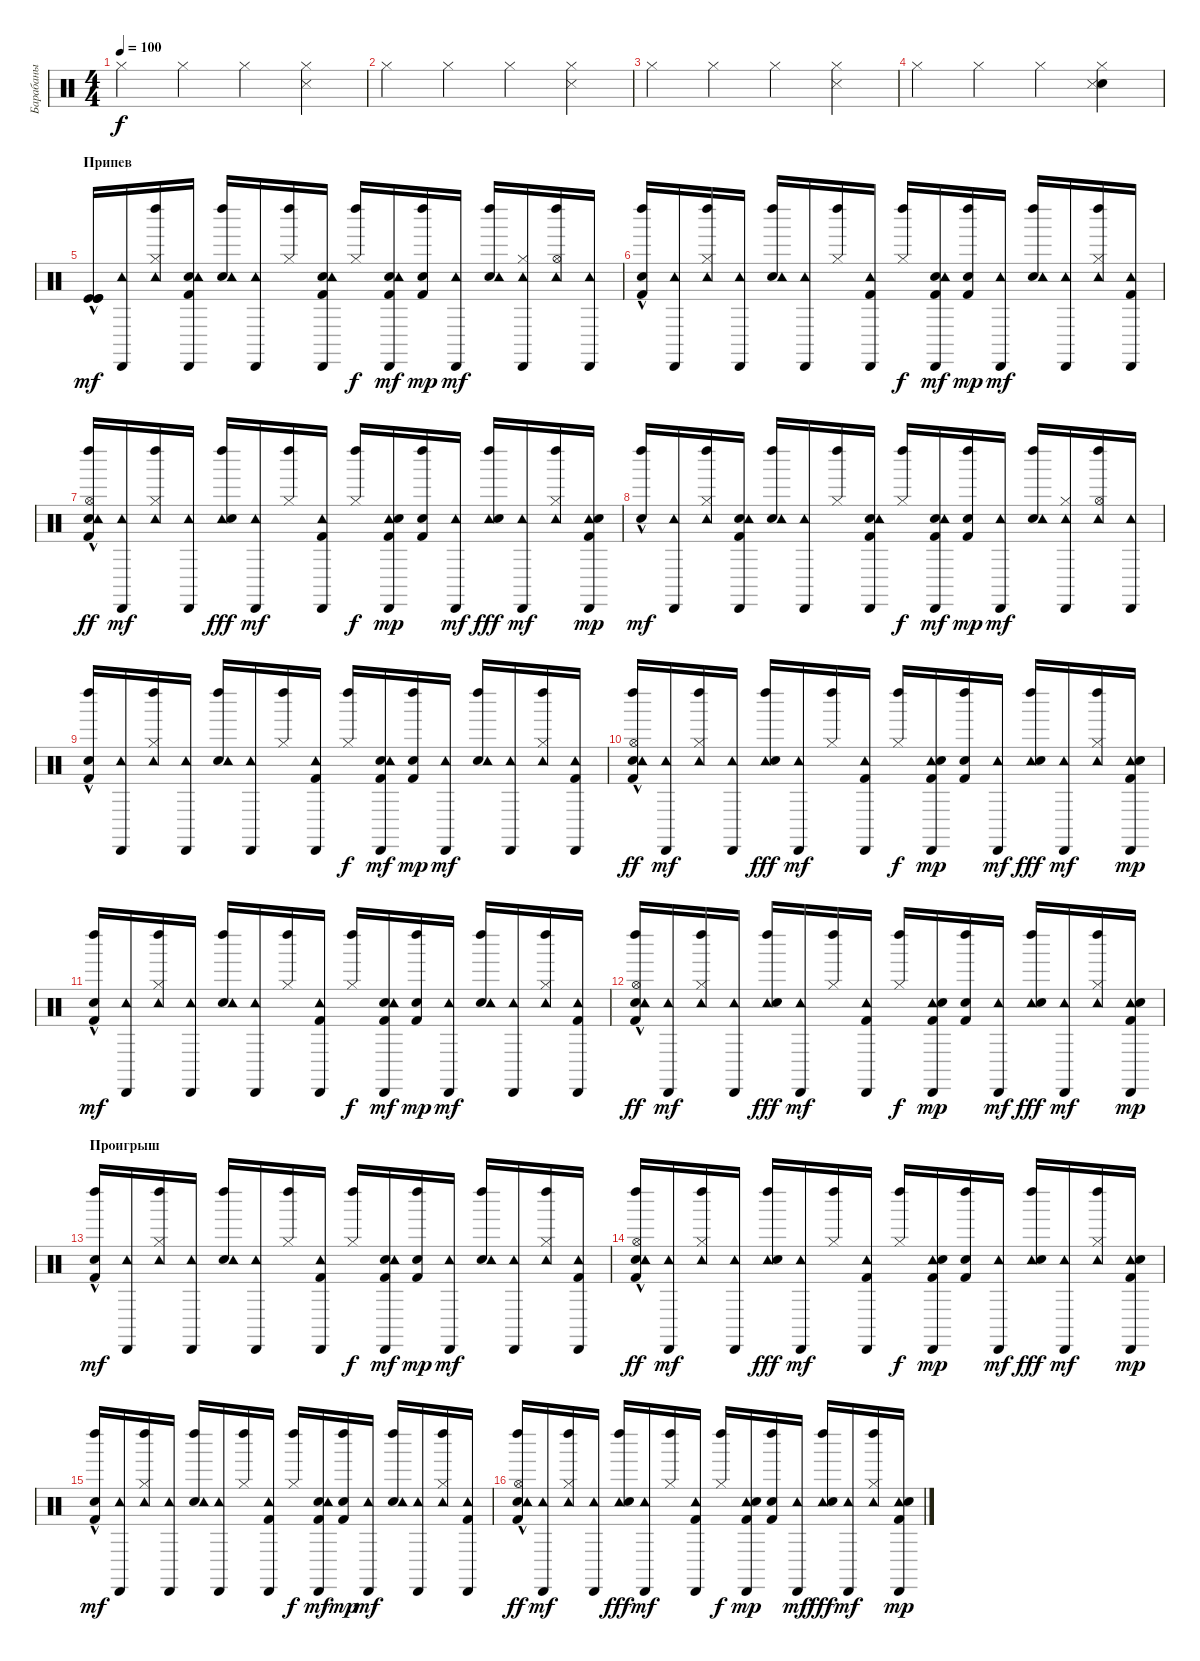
\track ("Барабаны" "Барабаны") {instrument percussion}
\staff {score}
\articulation defaults
\ts (4 4)
\tempo 100
\clef neutral
\ks c "Hi-Hat (closed)".4{dy f} "Hi-Hat (closed)".4 "Hi-Hat (closed)".4
("Snare (side stick) 3" "Hi-Hat (closed)").4 |
"Hi-Hat (closed)".4 "Hi-Hat (closed)".4 "Hi-Hat (closed)".4 ("Snare (side stick) 3" "Hi-Hat (closed)").4 |
"Hi-Hat (closed)".4 "Hi-Hat (closed)".4 "Hi-Hat (closed)".4 ("Snare (side stick) 3" "Hi-Hat (closed)").4 |
"Hi-Hat (closed)".4 "Hi-Hat (closed)".4 "Hi-Hat (closed)".4 ("Snare (hit) 2" "Snare (side stick) 3" "Hi-Hat (closed)").4 |
\section ("" "Припев")
("Kick (hit)"{hac} "Kick (hit)" "Kick (hit)").16{dy mf balance 8} ("Cabasa (hit)" "Tambourine (hit)").16 ("Hi-Hat (closed)" "Left Maraca (hit)" "Tambourine (hit)").16 ("Electric Snare (hit)" "Kick (hit) 2" "Cabasa (hit)" "Tambourine (hit)").16 ("Electric Snare (hit)" "Left Maraca (hit)" "Tambourine (hit)").16 ("Cabasa (hit)" "Tambourine (hit)").16 ("Hi-Hat (closed)" "Left Maraca (hit)").16 ("Electric Snare (hit)" "Kick (hit) 2" "Cabasa (hit)" "Tambourine (hit)").16 ("Hi-Hat (closed)" "Left Maraca (hit)").16{dy f} ("Electric Snare (hit)" "Kick (hit) 2" "Cabasa (hit)" "Tambourine (hit)").16{dy mf} ("Electric Snare (hit)" "Left Maraca (hit)" "Kick (hit) 2").16{dy mp} ("Cabasa (hit)" "Tambourine (hit)").16{dy mf} ("Electric Snare (hit)" "Left Maraca (hit)" "Tambourine (hit)").16 ("Hi-Hat (closed)" "Cabasa (hit)" "Tambourine (hit)").16 ("Tambourine (hit)" "Hi-Hat (open)" "Left Maraca (hit)").16 ("Cabasa (hit)" "Tambourine (hit)").16 |
("Electric Snare (hit)"{hac} "Left Maraca (hit)" "Kick (hit) 2").16 ("Cabasa (hit)" "Tambourine (hit)").16 ("Hi-Hat (closed)" "Left Maraca (hit)" "Tambourine (hit)").16 ("Cabasa (hit)" "Tambourine (hit)").16 ("Electric Snare (hit)" "Left Maraca (hit)" "Tambourine (hit)").16 ("Cabasa (hit)" "Tambourine (hit)").16 ("Hi-Hat (closed)" "Left Maraca (hit)").16 ("Cabasa (hit)" "Kick (hit) 2" "Tambourine (hit)").16 ("Hi-Hat (closed)" "Left Maraca (hit)").16{dy f} ("Electric Snare (hit)" "Cabasa (hit)" "Kick (hit) 2" "Tambourine (hit)").16{dy mf} ("Electric Snare (hit)" "Left Maraca (hit)" "Kick (hit) 2").16{dy mp} ("Cabasa (hit)" "Tambourine (hit)").16{dy mf} ("Electric Snare (hit)" "Left Maraca (hit)" "Tambourine (hit)").16 ("Cabasa (hit)" "Tambourine (hit)").16 ("Hi-Hat (closed)" "Left Maraca (hit)" "Tambourine (hit)").16 ("Cabasa (hit)" "Kick (hit) 2" "Tambourine (hit)").16 |
("Electric Snare (hit)"{hac} "Tambourine (hit)" "Hi-Hat (open)" "Kick (hit) 2" "Left Maraca (hit)").16{dy ff} ("Tambourine (hit)" "Cabasa (hit)").16{dy mf} ("Tambourine (hit)" "Hi-Hat (closed)" "Left Maraca (hit)").16 ("Tambourine (hit)" "Cabasa (hit)").16 ("Tambourine (hit)" "Electric Snare (hit)" "Left Maraca (hit)").16{dy fff} ("Tambourine (hit)" "Cabasa (hit)").16{dy mf} ("Hi-Hat (closed)" "Left Maraca (hit)").16 ("Tambourine (hit)" "Cabasa (hit)" "Kick (hit) 2").16 ("Hi-Hat (closed)" "Left Maraca (hit)").16{dy f} ("Tambourine (hit)" "Electric Snare (hit)" "Kick (hit) 2" "Cabasa (hit)").16{dy mp} ("Electric Snare (hit)" "Left Maraca (hit)" "Kick (hit) 2").16 ("Tambourine (hit)" "Cabasa (hit)").16{dy mf} ("Tambourine (hit)" "Electric Snare (hit)" "Left Maraca (hit)").16{dy fff} ("Tambourine (hit)" "Cabasa (hit)").16{dy mf} ("Tambourine (hit)" "Hi-Hat (closed)" "Left Maraca (hit)").16 ("Tambourine (hit)" "Electric Snare (hit)" "Kick (hit) 2" "Cabasa (hit)").16{dy mp} |
("Electric Snare (hit)"{hac} "Left Maraca (hit)").16{dy mf balance 8} ("Cabasa (hit)" "Tambourine (hit)").16 ("Hi-Hat (closed)" "Left Maraca (hit)" "Tambourine (hit)").16 ("Electric Snare (hit)" "Kick (hit) 2" "Cabasa (hit)" "Tambourine (hit)").16 ("Electric Snare (hit)" "Left Maraca (hit)" "Tambourine (hit)").16 ("Cabasa (hit)" "Tambourine (hit)").16 ("Hi-Hat (closed)" "Left Maraca (hit)").16 ("Electric Snare (hit)" "Kick (hit) 2" "Cabasa (hit)" "Tambourine (hit)").16 ("Hi-Hat (closed)" "Left Maraca (hit)").16{dy f} ("Electric Snare (hit)" "Kick (hit) 2" "Cabasa (hit)" "Tambourine (hit)").16{dy mf} ("Electric Snare (hit)" "Left Maraca (hit)" "Kick (hit) 2").16{dy mp} ("Cabasa (hit)" "Tambourine (hit)").16{dy mf} ("Electric Snare (hit)" "Left Maraca (hit)" "Tambourine (hit)").16 ("Hi-Hat (closed)" "Cabasa (hit)" "Tambourine (hit)").16 ("Tambourine (hit)" "Hi-Hat (open)" "Left Maraca (hit)").16 ("Cabasa (hit)" "Tambourine (hit)").16 |
("Electric Snare (hit)"{hac} "Left Maraca (hit)" "Kick (hit) 2").16 ("Cabasa (hit)" "Tambourine (hit)").16 ("Hi-Hat (closed)" "Left Maraca (hit)" "Tambourine (hit)").16 ("Cabasa (hit)" "Tambourine (hit)").16 ("Electric Snare (hit)" "Left Maraca (hit)" "Tambourine (hit)").16 ("Cabasa (hit)" "Tambourine (hit)").16 ("Hi-Hat (closed)" "Left Maraca (hit)").16 ("Cabasa (hit)" "Kick (hit) 2" "Tambourine (hit)").16 ("Hi-Hat (closed)" "Left Maraca (hit)").16{dy f} ("Electric Snare (hit)" "Cabasa (hit)" "Kick (hit) 2" "Tambourine (hit)").16{dy mf} ("Electric Snare (hit)" "Left Maraca (hit)" "Kick (hit) 2").16{dy mp} ("Cabasa (hit)" "Tambourine (hit)").16{dy mf} ("Electric Snare (hit)" "Left Maraca (hit)" "Tambourine (hit)").16 ("Cabasa (hit)" "Tambourine (hit)").16 ("Hi-Hat (closed)" "Left Maraca (hit)" "Tambourine (hit)").16 ("Cabasa (hit)" "Kick (hit) 2" "Tambourine (hit)").16 |
("Electric Snare (hit)"{hac} "Tambourine (hit)" "Hi-Hat (open)" "Kick (hit) 2" "Left Maraca (hit)").16{dy ff} ("Tambourine (hit)" "Cabasa (hit)").16{dy mf} ("Tambourine (hit)" "Hi-Hat (closed)" "Left Maraca (hit)").16 ("Tambourine (hit)" "Cabasa (hit)").16 ("Tambourine (hit)" "Electric Snare (hit)" "Left Maraca (hit)").16{dy fff} ("Tambourine (hit)" "Cabasa (hit)").16{dy mf} ("Hi-Hat (closed)" "Left Maraca (hit)").16 ("Tambourine (hit)" "Cabasa (hit)" "Kick (hit) 2").16 ("Hi-Hat (closed)" "Left Maraca (hit)").16{dy f} ("Tambourine (hit)" "Electric Snare (hit)" "Kick (hit) 2" "Cabasa (hit)").16{dy mp} ("Electric Snare (hit)" "Left Maraca (hit)" "Kick (hit) 2").16 ("Tambourine (hit)" "Cabasa (hit)").16{dy mf} ("Tambourine (hit)" "Electric Snare (hit)" "Left Maraca (hit)").16{dy fff} ("Tambourine (hit)" "Cabasa (hit)").16{dy mf} ("Tambourine (hit)" "Hi-Hat (closed)" "Left Maraca (hit)").16 ("Tambourine (hit)" "Electric Snare (hit)" "Kick (hit) 2" "Cabasa (hit)").16{dy mp} |
("Electric Snare (hit)"{hac} "Left Maraca (hit)" "Kick (hit) 2").16{dy mf balance 8} ("Cabasa (hit)" "Tambourine (hit)").16 ("Hi-Hat (closed)" "Left Maraca (hit)" "Tambourine (hit)").16 ("Cabasa (hit)" "Tambourine (hit)").16 ("Electric Snare (hit)" "Left Maraca (hit)" "Tambourine (hit)").16 ("Cabasa (hit)" "Tambourine (hit)").16 ("Hi-Hat (closed)" "Left Maraca (hit)").16 ("Cabasa (hit)" "Kick (hit) 2" "Tambourine (hit)").16 ("Hi-Hat (closed)" "Left Maraca (hit)").16{dy f} ("Electric Snare (hit)" "Cabasa (hit)" "Kick (hit) 2" "Tambourine (hit)").16{dy mf} ("Electric Snare (hit)" "Left Maraca (hit)" "Kick (hit) 2").16{dy mp} ("Cabasa (hit)" "Tambourine (hit)").16{dy mf} ("Electric Snare (hit)" "Left Maraca (hit)" "Tambourine (hit)").16 ("Cabasa (hit)" "Tambourine (hit)").16 ("Hi-Hat (closed)" "Left Maraca (hit)" "Tambourine (hit)").16 ("Cabasa (hit)" "Kick (hit) 2" "Tambourine (hit)").16 |
("Electric Snare (hit)"{hac} "Tambourine (hit)" "Hi-Hat (open)" "Kick (hit) 2" "Left Maraca (hit)").16{dy ff} ("Tambourine (hit)" "Cabasa (hit)").16{dy mf} ("Tambourine (hit)" "Hi-Hat (closed)" "Left Maraca (hit)").16 ("Tambourine (hit)" "Cabasa (hit)").16 ("Tambourine (hit)" "Electric Snare (hit)" "Left Maraca (hit)").16{dy fff} ("Tambourine (hit)" "Cabasa (hit)").16{dy mf} ("Hi-Hat (closed)" "Left Maraca (hit)").16 ("Tambourine (hit)" "Cabasa (hit)" "Kick (hit) 2").16 ("Hi-Hat (closed)" "Left Maraca (hit)").16{dy f} ("Tambourine (hit)" "Electric Snare (hit)" "Kick (hit) 2" "Cabasa (hit)").16{dy mp} ("Electric Snare (hit)" "Left Maraca (hit)" "Kick (hit) 2").16 ("Tambourine (hit)" "Cabasa (hit)").16{dy mf} ("Tambourine (hit)" "Electric Snare (hit)" "Left Maraca (hit)").16{dy fff} ("Tambourine (hit)" "Cabasa (hit)").16{dy mf} ("Tambourine (hit)" "Hi-Hat (closed)" "Left Maraca (hit)").16 ("Tambourine (hit)" "Electric Snare (hit)" "Kick (hit) 2" "Cabasa (hit)").16{dy mp} |
\section ("" "Проигрыш")
("Electric Snare (hit)"{hac} "Left Maraca (hit)" "Kick (hit) 2").16{dy mf balance 8} ("Cabasa (hit)" "Tambourine (hit)").16 ("Hi-Hat (closed)" "Left Maraca (hit)" "Tambourine (hit)").16 ("Cabasa (hit)" "Tambourine (hit)").16 ("Electric Snare (hit)" "Left Maraca (hit)" "Tambourine (hit)").16 ("Cabasa (hit)" "Tambourine (hit)").16 ("Hi-Hat (closed)" "Left Maraca (hit)").16 ("Cabasa (hit)" "Kick (hit) 2" "Tambourine (hit)").16 ("Hi-Hat (closed)" "Left Maraca (hit)").16{dy f} ("Electric Snare (hit)" "Cabasa (hit)" "Kick (hit) 2" "Tambourine (hit)").16{dy mf} ("Electric Snare (hit)" "Left Maraca (hit)" "Kick (hit) 2").16{dy mp} ("Cabasa (hit)" "Tambourine (hit)").16{dy mf} ("Electric Snare (hit)" "Left Maraca (hit)" "Tambourine (hit)").16 ("Cabasa (hit)" "Tambourine (hit)").16 ("Hi-Hat (closed)" "Left Maraca (hit)" "Tambourine (hit)").16 ("Cabasa (hit)" "Kick (hit) 2" "Tambourine (hit)").16 |
("Electric Snare (hit)"{hac} "Tambourine (hit)" "Hi-Hat (open)" "Kick (hit) 2" "Left Maraca (hit)").16{dy ff} ("Tambourine (hit)" "Cabasa (hit)").16{dy mf} ("Tambourine (hit)" "Hi-Hat (closed)" "Left Maraca (hit)").16 ("Tambourine (hit)" "Cabasa (hit)").16 ("Tambourine (hit)" "Electric Snare (hit)" "Left Maraca (hit)").16{dy fff} ("Tambourine (hit)" "Cabasa (hit)").16{dy mf} ("Hi-Hat (closed)" "Left Maraca (hit)").16 ("Tambourine (hit)" "Cabasa (hit)" "Kick (hit) 2").16 ("Hi-Hat (closed)" "Left Maraca (hit)").16{dy f} ("Tambourine (hit)" "Electric Snare (hit)" "Kick (hit) 2" "Cabasa (hit)").16{dy mp} ("Electric Snare (hit)" "Left Maraca (hit)" "Kick (hit) 2").16 ("Tambourine (hit)" "Cabasa (hit)").16{dy mf} ("Tambourine (hit)" "Electric Snare (hit)" "Left Maraca (hit)").16{dy fff} ("Tambourine (hit)" "Cabasa (hit)").16{dy mf} ("Tambourine (hit)" "Hi-Hat (closed)" "Left Maraca (hit)").16 ("Tambourine (hit)" "Electric Snare (hit)" "Kick (hit) 2" "Cabasa (hit)").16{dy mp} |
("Electric Snare (hit)"{hac} "Left Maraca (hit)" "Kick (hit) 2").16{dy mf balance 8} ("Cabasa (hit)" "Tambourine (hit)").16 ("Hi-Hat (closed)" "Left Maraca (hit)" "Tambourine (hit)").16 ("Cabasa (hit)" "Tambourine (hit)").16 ("Electric Snare (hit)" "Left Maraca (hit)" "Tambourine (hit)").16 ("Cabasa (hit)" "Tambourine (hit)").16 ("Hi-Hat (closed)" "Left Maraca (hit)").16 ("Cabasa (hit)" "Kick (hit) 2" "Tambourine (hit)").16 ("Hi-Hat (closed)" "Left Maraca (hit)").16{dy f} ("Electric Snare (hit)" "Cabasa (hit)" "Kick (hit) 2" "Tambourine (hit)").16{dy mf} ("Electric Snare (hit)" "Left Maraca (hit)" "Kick (hit) 2").16{dy mp} ("Cabasa (hit)" "Tambourine (hit)").16{dy mf} ("Electric Snare (hit)" "Left Maraca (hit)" "Tambourine (hit)").16 ("Cabasa (hit)" "Tambourine (hit)").16 ("Hi-Hat (closed)" "Left Maraca (hit)" "Tambourine (hit)").16 ("Cabasa (hit)" "Kick (hit) 2" "Tambourine (hit)").16 |
("Electric Snare (hit)"{hac} "Tambourine (hit)" "Hi-Hat (open)" "Kick (hit) 2" "Left Maraca (hit)").16{dy ff} ("Tambourine (hit)" "Cabasa (hit)").16{dy mf} ("Tambourine (hit)" "Hi-Hat (closed)" "Left Maraca (hit)").16 ("Tambourine (hit)" "Cabasa (hit)").16 ("Tambourine (hit)" "Electric Snare (hit)" "Left Maraca (hit)").16{dy fff} ("Tambourine (hit)" "Cabasa (hit)").16{dy mf} ("Hi-Hat (closed)" "Left Maraca (hit)").16 ("Tambourine (hit)" "Cabasa (hit)" "Kick (hit) 2").16 ("Hi-Hat (closed)" "Left Maraca (hit)").16{dy f} ("Tambourine (hit)" "Electric Snare (hit)" "Kick (hit) 2" "Cabasa (hit)").16{dy mp} ("Electric Snare (hit)" "Left Maraca (hit)" "Kick (hit) 2").16 ("Tambourine (hit)" "Cabasa (hit)").16{dy mf} ("Tambourine (hit)" "Electric Snare (hit)" "Left Maraca (hit)").16{dy fff} ("Tambourine (hit)" "Cabasa (hit)").16{dy mf} ("Tambourine (hit)" "Hi-Hat (closed)" "Left Maraca (hit)").16 ("Tambourine (hit)" "Electric Snare (hit)" "Kick (hit) 2" "Cabasa (hit)").16{dy mp}
